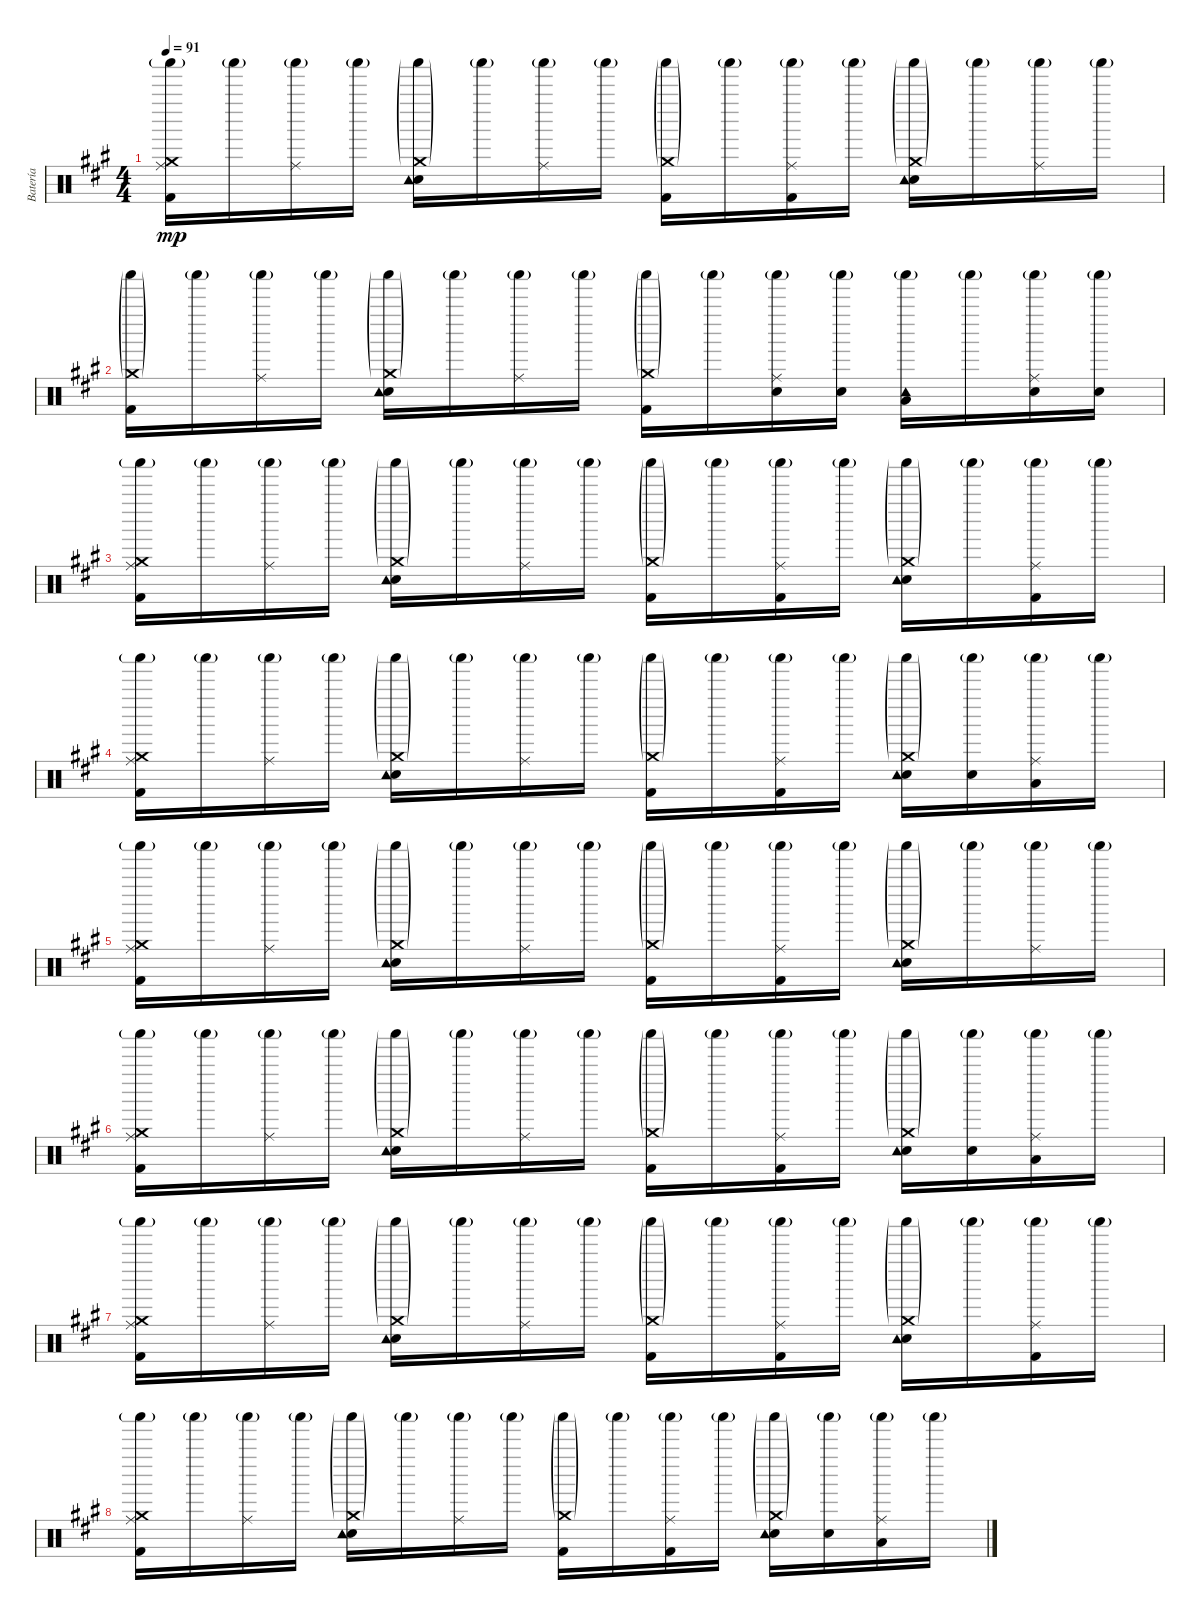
\track ("Batería" "Batería") {instrument percussion}
\staff {score}
\articulation defaults
\ts (4 4)
\tempo 91
\clef neutral
\ks a
("Kick (hit) 2" "Ride (middle)" "Crash medium (hit)" "Shaker (hit)"{g}).16{dy mp} "Shaker (hit)"{g}.16 ("Ride (middle)" "Shaker (hit)"{g}).16 "Shaker (hit)"{g}.16 ("Electric Snare (hit)" "Crash medium (hit)"{g} "Tambourine (hit)" "Shaker (hit)"{g}).16 "Shaker (hit)"{g}.16 ("Ride (middle)" "Shaker (hit)"{g}).16 "Shaker (hit)"{g}.16 ("Kick (hit) 2" "Crash medium (hit)"{g} "Shaker (hit)"{g}).16 "Shaker (hit)"{g}.16 ("Kick (hit) 2" "Ride (middle)" "Shaker (hit)"{g}).16 "Shaker (hit)"{g}.16 ("Electric Snare (hit)" "Crash medium (hit)"{g} "Tambourine (hit)" "Shaker (hit)"{g}).16 "Shaker (hit)"{g}.16 ("Ride (middle)" "Shaker (hit)"{g}).16 "Shaker (hit)"{g}.16 |
("Kick (hit) 2" "Crash medium (hit)"{g} "Shaker (hit)"{g}).16 "Shaker (hit)"{g}.16 ("Ride (middle)" "Shaker (hit)"{g}).16 "Shaker (hit)"{g}.16 ("Electric Snare (hit)" "Crash medium (hit)"{g} "Tambourine (hit)" "Shaker (hit)"{g}).16 "Shaker (hit)"{g}.16 ("Ride (middle)" "Shaker (hit)"{g}).16 "Shaker (hit)"{g}.16 ("Kick (hit) 2" "Crash medium (hit)"{g} "Shaker (hit)"{g}).16 "Shaker (hit)"{g}.16 ("Electric Snare (hit)" "Ride (middle)" "Shaker (hit)"{g}).16 ("Electric Snare (hit)" "Shaker (hit)"{g}).16 ("Low Tom (hit)" "Tambourine (hit)" "Shaker (hit)"{g}).16 "Shaker (hit)"{g}.16 ("Electric Snare (hit)" "Ride (middle)" "Shaker (hit)"{g}).16 ("Electric Snare (hit)" "Shaker (hit)"{g}).16 |
("Kick (hit) 2" "Ride (middle)" "Crash medium (hit)" "Shaker (hit)"{g}).16 "Shaker (hit)"{g}.16 ("Ride (middle)" "Shaker (hit)"{g}).16 "Shaker (hit)"{g}.16 ("Electric Snare (hit)" "Crash medium (hit)"{g} "Tambourine (hit)" "Shaker (hit)"{g}).16 "Shaker (hit)"{g}.16 ("Ride (middle)" "Shaker (hit)"{g}).16 "Shaker (hit)"{g}.16 ("Kick (hit) 2" "Crash medium (hit)"{g} "Shaker (hit)"{g}).16 "Shaker (hit)"{g}.16 ("Kick (hit) 2" "Ride (middle)" "Shaker (hit)"{g}).16 "Shaker (hit)"{g}.16 ("Electric Snare (hit)" "Crash medium (hit)"{g} "Tambourine (hit)" "Shaker (hit)"{g}).16 "Shaker (hit)"{g}.16 ("Kick (hit) 2" "Ride (middle)" "Shaker (hit)"{g}).16 "Shaker (hit)"{g}.16 |
("Kick (hit) 2" "Ride (middle)" "Crash medium (hit)" "Shaker (hit)"{g}).16 "Shaker (hit)"{g}.16 ("Ride (middle)" "Shaker (hit)"{g}).16 "Shaker (hit)"{g}.16 ("Electric Snare (hit)" "Crash medium (hit)"{g} "Tambourine (hit)" "Shaker (hit)"{g}).16 "Shaker (hit)"{g}.16 ("Ride (middle)" "Shaker (hit)"{g}).16 "Shaker (hit)"{g}.16 ("Kick (hit) 2" "Crash medium (hit)"{g} "Shaker (hit)"{g}).16 "Shaker (hit)"{g}.16 ("Kick (hit) 2" "Ride (middle)" "Shaker (hit)"{g}).16 "Shaker (hit)"{g}.16 ("Electric Snare (hit)" "Crash medium (hit)"{g} "Tambourine (hit)" "Shaker (hit)"{g}).16 ("Electric Snare (hit)" "Shaker (hit)"{g}).16 ("Ride (middle)" "Low Tom (hit)" "Shaker (hit)"{g}).16 "Shaker (hit)"{g}.16 |
("Kick (hit) 2" "Ride (middle)" "Crash medium (hit)" "Shaker (hit)"{g}).16 "Shaker (hit)"{g}.16 ("Ride (middle)" "Shaker (hit)"{g}).16 "Shaker (hit)"{g}.16 ("Electric Snare (hit)" "Crash medium (hit)"{g} "Tambourine (hit)" "Shaker (hit)"{g}).16 "Shaker (hit)"{g}.16 ("Ride (middle)" "Shaker (hit)"{g}).16 "Shaker (hit)"{g}.16 ("Kick (hit) 2" "Crash medium (hit)"{g} "Shaker (hit)"{g}).16 "Shaker (hit)"{g}.16 ("Kick (hit) 2" "Ride (middle)" "Shaker (hit)"{g}).16 "Shaker (hit)"{g}.16 ("Electric Snare (hit)" "Crash medium (hit)"{g} "Tambourine (hit)" "Shaker (hit)"{g}).16 "Shaker (hit)"{g}.16 ("Ride (middle)" "Shaker (hit)"{g}).16 "Shaker (hit)"{g}.16 |
("Kick (hit) 2" "Ride (middle)" "Crash medium (hit)" "Shaker (hit)"{g}).16 "Shaker (hit)"{g}.16 ("Ride (middle)" "Shaker (hit)"{g}).16 "Shaker (hit)"{g}.16 ("Electric Snare (hit)" "Crash medium (hit)"{g} "Tambourine (hit)" "Shaker (hit)"{g}).16 "Shaker (hit)"{g}.16 ("Ride (middle)" "Shaker (hit)"{g}).16 "Shaker (hit)"{g}.16 ("Kick (hit) 2" "Crash medium (hit)"{g} "Shaker (hit)"{g}).16 "Shaker (hit)"{g}.16 ("Kick (hit) 2" "Ride (middle)" "Shaker (hit)"{g}).16 "Shaker (hit)"{g}.16 ("Electric Snare (hit)" "Crash medium (hit)"{g} "Tambourine (hit)" "Shaker (hit)"{g}).16 ("Electric Snare (hit)" "Shaker (hit)"{g}).16 ("Ride (middle)" "Low Tom (hit)" "Shaker (hit)"{g}).16 "Shaker (hit)"{g}.16 |
("Kick (hit) 2" "Ride (middle)" "Crash medium (hit)" "Shaker (hit)"{g}).16 "Shaker (hit)"{g}.16 ("Ride (middle)" "Shaker (hit)"{g}).16 "Shaker (hit)"{g}.16 ("Electric Snare (hit)" "Crash medium (hit)"{g} "Tambourine (hit)" "Shaker (hit)"{g}).16 "Shaker (hit)"{g}.16 ("Ride (middle)" "Shaker (hit)"{g}).16 "Shaker (hit)"{g}.16 ("Kick (hit) 2" "Crash medium (hit)"{g} "Shaker (hit)"{g}).16 "Shaker (hit)"{g}.16 ("Kick (hit) 2" "Ride (middle)" "Shaker (hit)"{g}).16 "Shaker (hit)"{g}.16 ("Electric Snare (hit)" "Crash medium (hit)"{g} "Tambourine (hit)" "Shaker (hit)"{g}).16 "Shaker (hit)"{g}.16 ("Kick (hit) 2" "Ride (middle)" "Shaker (hit)"{g}).16 "Shaker (hit)"{g}.16 |
("Kick (hit) 2" "Ride (middle)" "Crash medium (hit)" "Shaker (hit)"{g}).16 "Shaker (hit)"{g}.16 ("Ride (middle)" "Shaker (hit)"{g}).16 "Shaker (hit)"{g}.16 ("Electric Snare (hit)" "Crash medium (hit)"{g} "Tambourine (hit)" "Shaker (hit)"{g}).16 "Shaker (hit)"{g}.16 ("Ride (middle)" "Shaker (hit)"{g}).16 "Shaker (hit)"{g}.16 ("Kick (hit) 2" "Crash medium (hit)"{g} "Shaker (hit)"{g}).16 "Shaker (hit)"{g}.16 ("Kick (hit) 2" "Ride (middle)" "Shaker (hit)"{g}).16 "Shaker (hit)"{g}.16 ("Electric Snare (hit)" "Crash medium (hit)"{g} "Tambourine (hit)" "Shaker (hit)"{g}).16 ("Electric Snare (hit)" "Shaker (hit)"{g}).16 ("Ride (middle)" "Low Tom (hit)" "Shaker (hit)"{g}).16 "Shaker (hit)"{g}.16
